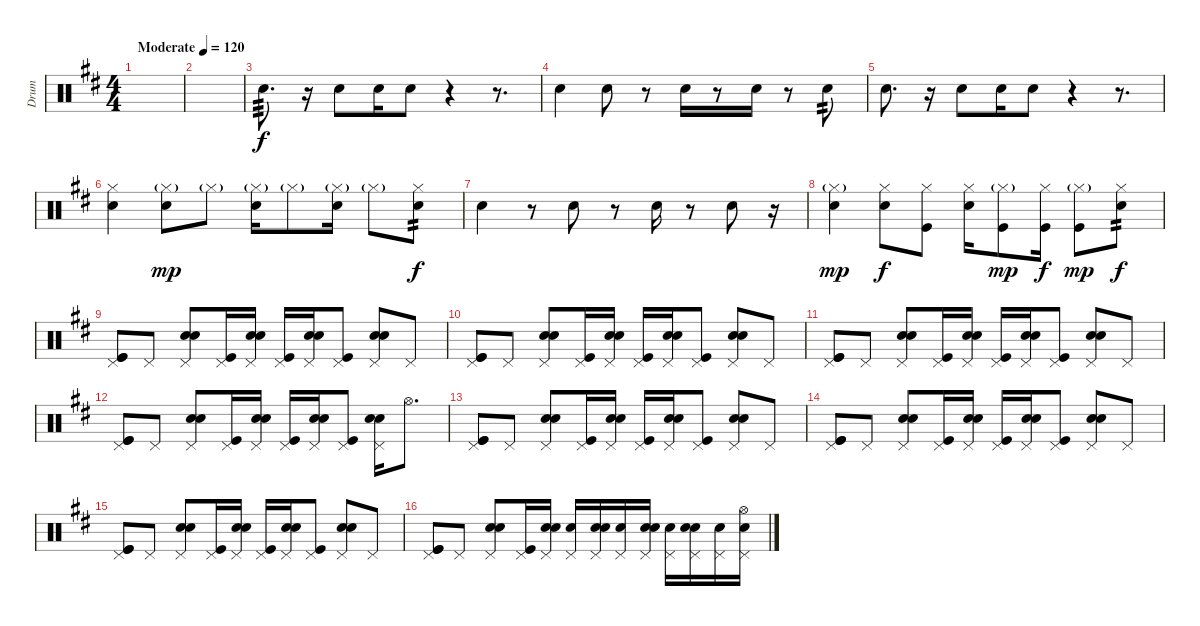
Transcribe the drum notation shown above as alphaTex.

\track ("Drum" "Drum") {instrument percussion}
\staff {score}
\articulation defaults
\ts (4 4)
\tempo (120 "Moderate")
\clef neutral
\ks d
|
|
"Electric Snare (hit)".8{d tp 3} r.16 "Electric Snare (hit)".8 "Electric Snare (hit)".16 "Electric Snare (hit)".8 r.4 r.8{d} |
"Electric Snare (hit)".4 "Electric Snare (hit)".8 r.8 "Electric Snare (hit)".16 r.8 "Electric Snare (hit)".16 r.8 "Electric Snare (hit)".8{tp 2} |
"Electric Snare (hit)".8{d} r.16 "Electric Snare (hit)".8 "Electric Snare (hit)".16 "Electric Snare (hit)".8 r.4 r.8{d} |
("Hi-Hat (closed)" "Electric Snare (hit)").4 ("Hi-Hat (closed)"{g} "Electric Snare (hit)").8{dy mp} "Hi-Hat (closed)"{g}.8 ("Hi-Hat (closed)"{g} "Electric Snare (hit)").16 "Hi-Hat (closed)"{g}.8 ("Hi-Hat (closed)"{g} "Electric Snare (hit)").16 "Hi-Hat (closed)"{g}.8 ("Hi-Hat (closed)" "Electric Snare (hit)").8{tp 2 dy f} |
"Electric Snare (hit)".4 r.8 "Electric Snare (hit)".8 r.8 "Electric Snare (hit)".16 r.8 "Electric Snare (hit)".8 r.16 |
("Hi-Hat (closed)"{g} "Electric Snare (hit)").4{dy mp} ("Hi-Hat (closed)" "Electric Snare (hit)").8{dy f} ("Hi-Hat (closed)" "Kick (hit)").8 ("Hi-Hat (closed)" "Electric Snare (hit)").16 ("Hi-Hat (closed)"{g} "Kick (hit)").8{dy mp} ("Hi-Hat (closed)" "Kick (hit)").16{dy f} ("Hi-Hat (closed)"{g} "Kick (hit)").8{dy mp} ("Hi-Hat (closed)" "Electric Snare (hit)").8{tp 2 dy f} |
("Pedal Hi-Hat (hit)" "Kick (hit)" "Kick (hit)").8 "Pedal Hi-Hat (hit)".8 ("Pedal Hi-Hat (hit)" "Electric Snare (hit)" "Electric Snare (hit)").8 ("Pedal Hi-Hat (hit)" "Kick (hit)").16 ("Pedal Hi-Hat (hit)" "Electric Snare (hit)" "Electric Snare (hit)").16 ("Pedal Hi-Hat (hit)" "Kick (hit)").16 ("Pedal Hi-Hat (hit)" "Electric Snare (hit)" "Electric Snare (hit)").16 ("Pedal Hi-Hat (hit)" "Kick (hit)").8 ("Pedal Hi-Hat (hit)" "Electric Snare (hit)" "Electric Snare (hit)").8 "Pedal Hi-Hat (hit)".8 |
("Pedal Hi-Hat (hit)" "Kick (hit)" "Kick (hit)").8 "Pedal Hi-Hat (hit)".8 ("Pedal Hi-Hat (hit)" "Electric Snare (hit)" "Electric Snare (hit)").8 ("Pedal Hi-Hat (hit)" "Kick (hit)").16 ("Pedal Hi-Hat (hit)" "Electric Snare (hit)" "Electric Snare (hit)").16 ("Pedal Hi-Hat (hit)" "Kick (hit)").16 ("Pedal Hi-Hat (hit)" "Electric Snare (hit)" "Electric Snare (hit)").16 ("Pedal Hi-Hat (hit)" "Kick (hit)").8 ("Pedal Hi-Hat (hit)" "Electric Snare (hit)" "Electric Snare (hit)").8 "Pedal Hi-Hat (hit)".8 |
("Pedal Hi-Hat (hit)" "Kick (hit)" "Kick (hit)").8 "Pedal Hi-Hat (hit)".8 ("Pedal Hi-Hat (hit)" "Electric Snare (hit)" "Electric Snare (hit)").8 ("Pedal Hi-Hat (hit)" "Kick (hit)").16 ("Pedal Hi-Hat (hit)" "Electric Snare (hit)" "Electric Snare (hit)").16 ("Pedal Hi-Hat (hit)" "Kick (hit)").16 ("Pedal Hi-Hat (hit)" "Electric Snare (hit)" "Electric Snare (hit)").16 ("Pedal Hi-Hat (hit)" "Kick (hit)").8 ("Pedal Hi-Hat (hit)" "Electric Snare (hit)" "Electric Snare (hit)").8 "Pedal Hi-Hat (hit)".8 |
("Pedal Hi-Hat (hit)" "Kick (hit)" "Kick (hit)").8 "Pedal Hi-Hat (hit)".8 ("Pedal Hi-Hat (hit)" "Electric Snare (hit)" "Electric Snare (hit)").8 ("Pedal Hi-Hat (hit)" "Kick (hit)").16 ("Pedal Hi-Hat (hit)" "Electric Snare (hit)" "Electric Snare (hit)").16 ("Pedal Hi-Hat (hit)" "Kick (hit)").16 ("Pedal Hi-Hat (hit)" "Electric Snare (hit)" "Electric Snare (hit)").16 ("Pedal Hi-Hat (hit)" "Kick (hit)").8 ("Pedal Hi-Hat (hit)" "Electric Snare (hit)" "Electric Snare (hit)").16 "Hi-Hat (open)".8{d} |
("Pedal Hi-Hat (hit)" "Kick (hit)" "Kick (hit)").8 "Pedal Hi-Hat (hit)".8 ("Pedal Hi-Hat (hit)" "Electric Snare (hit)" "Electric Snare (hit)").8 ("Pedal Hi-Hat (hit)" "Kick (hit)").16 ("Pedal Hi-Hat (hit)" "Electric Snare (hit)" "Electric Snare (hit)").16 ("Pedal Hi-Hat (hit)" "Kick (hit)").16 ("Pedal Hi-Hat (hit)" "Electric Snare (hit)" "Electric Snare (hit)").16 ("Pedal Hi-Hat (hit)" "Kick (hit)").8 ("Pedal Hi-Hat (hit)" "Electric Snare (hit)" "Electric Snare (hit)").8 "Pedal Hi-Hat (hit)".8 |
("Pedal Hi-Hat (hit)" "Kick (hit)" "Kick (hit)").8 "Pedal Hi-Hat (hit)".8 ("Pedal Hi-Hat (hit)" "Electric Snare (hit)" "Electric Snare (hit)").8 ("Pedal Hi-Hat (hit)" "Kick (hit)").16 ("Pedal Hi-Hat (hit)" "Electric Snare (hit)" "Electric Snare (hit)").16 ("Pedal Hi-Hat (hit)" "Kick (hit)").16 ("Pedal Hi-Hat (hit)" "Electric Snare (hit)" "Electric Snare (hit)").16 ("Pedal Hi-Hat (hit)" "Kick (hit)").8 ("Pedal Hi-Hat (hit)" "Electric Snare (hit)" "Electric Snare (hit)").8 "Pedal Hi-Hat (hit)".8 |
("Pedal Hi-Hat (hit)" "Kick (hit)" "Kick (hit)").8 "Pedal Hi-Hat (hit)".8 ("Pedal Hi-Hat (hit)" "Electric Snare (hit)" "Electric Snare (hit)").8 ("Pedal Hi-Hat (hit)" "Kick (hit)").16 ("Pedal Hi-Hat (hit)" "Electric Snare (hit)" "Electric Snare (hit)").16 ("Pedal Hi-Hat (hit)" "Kick (hit)").16 ("Pedal Hi-Hat (hit)" "Electric Snare (hit)" "Electric Snare (hit)").16 ("Pedal Hi-Hat (hit)" "Kick (hit)").8 ("Pedal Hi-Hat (hit)" "Electric Snare (hit)" "Electric Snare (hit)").8 "Pedal Hi-Hat (hit)".8 |
("Pedal Hi-Hat (hit)" "Kick (hit)" "Kick (hit)").8 "Pedal Hi-Hat (hit)".8 ("Pedal Hi-Hat (hit)" "Electric Snare (hit)" "Electric Snare (hit)").8 ("Pedal Hi-Hat (hit)" "Kick (hit)").16 ("Pedal Hi-Hat (hit)" "Electric Snare (hit)" "Electric Snare (hit)").16 ("Pedal Hi-Hat (hit)" "Electric Snare (hit)").16 ("Pedal Hi-Hat (hit)" "Electric Snare (hit)" "Electric Snare (hit)").16 ("Pedal Hi-Hat (hit)" "Electric Snare (hit)").16 ("Pedal Hi-Hat (hit)" "Electric Snare (hit)" "Electric Snare (hit)").16 ("Pedal Hi-Hat (hit)" "Electric Snare (hit)").16 ("Pedal Hi-Hat (hit)" "Electric Snare (hit)" "Electric Snare (hit)").16 ("Pedal Hi-Hat (hit)" "Electric Snare (hit)").16 ("Pedal Hi-Hat (hit)" "Hi-Hat (open)" "Electric Snare (hit)").16
